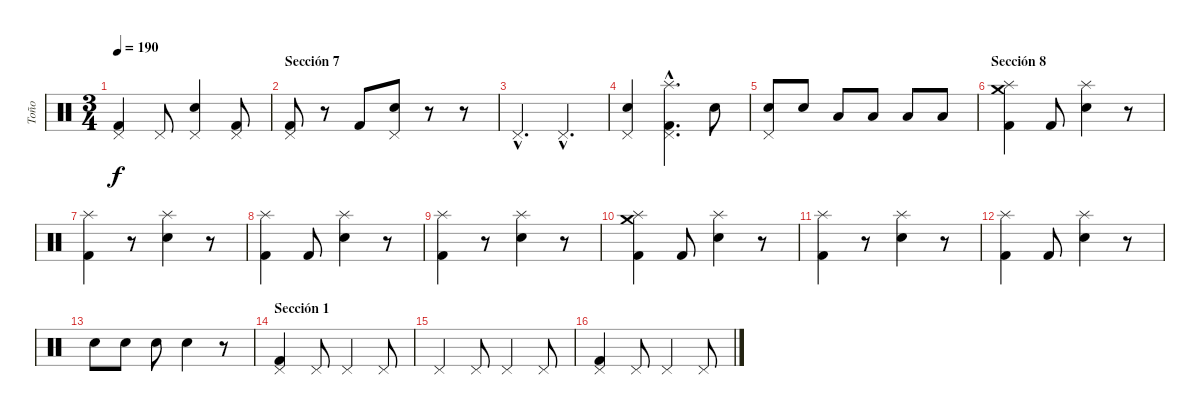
\track ("Toño" "Toño") {instrument percussion}
\staff {score}
\articulation defaults
\ts (3 4)
\tempo 190
\clef neutral
\ks c
("Pedal Hi-Hat (hit)" "Kick (hit) 2").4{dy f} "Pedal Hi-Hat (hit)".8 ("Pedal Hi-Hat (hit)" "Electric Snare (hit)").4 ("Pedal Hi-Hat (hit)" "Kick (hit) 2").8 |
\section ("" "Sección 7")
("Pedal Hi-Hat (hit)" "Kick (hit) 2").8 r.8 "Kick (hit) 2".8 ("Pedal Hi-Hat (hit)" "Electric Snare (hit)").8 r.8 r.8 |
"Pedal Hi-Hat (hit)"{hac}.4{d} "Pedal Hi-Hat (hit)"{hac}.4{d} |
("Pedal Hi-Hat (hit)" "Electric Snare (hit)").4 ("Pedal Hi-Hat (hit)"{hac} "Splash (hit)"{hac} "Kick (hit) 2"{hac}).4{d} "Electric Snare (hit)".8 |
("Pedal Hi-Hat (hit)" "Electric Snare (hit)").8 "Electric Snare (hit)".8 "Low Tom (hit)".8 "Low Tom (hit)".8 "Low Tom (hit)".8 "Low Tom (hit)".8 |
\section ("" "Sección 8")
("Splash (hit)" "Crash medium (hit)" "Kick (hit) 2").4 "Kick (hit) 2".8 ("Splash (hit)" "Electric Snare (hit)").4 r.8 |
("Splash (hit)" "Kick (hit) 2").4 r.8 ("Splash (hit)" "Electric Snare (hit)").4 r.8 |
("Splash (hit)" "Kick (hit) 2").4 "Kick (hit) 2".8 ("Splash (hit)" "Electric Snare (hit)").4 r.8 |
("Splash (hit)" "Kick (hit) 2").4 r.8 ("Splash (hit)" "Electric Snare (hit)").4 r.8 |
("Splash (hit)" "Crash medium (hit)" "Kick (hit) 2").4 "Kick (hit) 2".8 ("Splash (hit)" "Electric Snare (hit)").4 r.8 |
("Splash (hit)" "Kick (hit) 2").4 r.8 ("Splash (hit)" "Electric Snare (hit)").4 r.8 |
("Splash (hit)" "Kick (hit) 2").4 "Kick (hit) 2".8 ("Splash (hit)" "Electric Snare (hit)").4 r.8 |
"Electric Snare (hit)".8 "Electric Snare (hit)".8 "Electric Snare (hit)".8 "Electric Snare (hit)".4 r.8 |
\section ("" "Sección 1")
("Pedal Hi-Hat (hit)" "Kick (hit) 2").4 "Pedal Hi-Hat (hit)".8 "Pedal Hi-Hat (hit)".4 "Pedal Hi-Hat (hit)".8 |
"Pedal Hi-Hat (hit)".4 "Pedal Hi-Hat (hit)".8 "Pedal Hi-Hat (hit)".4 "Pedal Hi-Hat (hit)".8 |
("Pedal Hi-Hat (hit)" "Kick (hit) 2").4 "Pedal Hi-Hat (hit)".8 "Pedal Hi-Hat (hit)".4 "Pedal Hi-Hat (hit)".8
